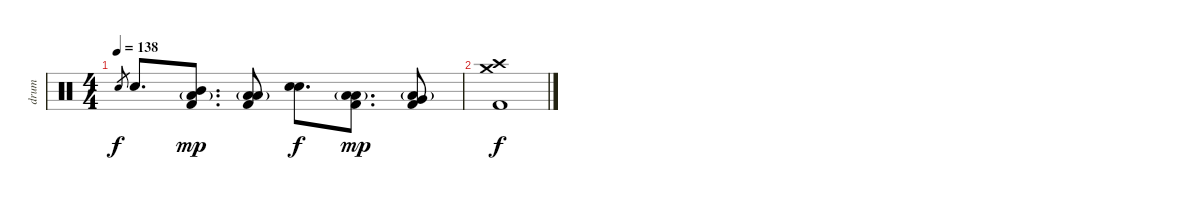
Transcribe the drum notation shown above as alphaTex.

\track ("drum" "drum") {instrument percussion}
\staff {score}
\articulation defaults
\ts (4 4)
\tempo 138
\clef neutral
\ks c "Snare (hit) 2".8{gr dy f} "Snare (hit) 2".8{d}
("Low Floor Tom (hit)"{g} "Mid Tom (hit)" "Kick (hit) 2").8{d dy mp} ("Low Floor Tom (hit)"{g} "Low Tom (hit)" "Kick (hit) 2").8 ("Snare (hit) 2" "Snare (hit) 2").8{d bd 240 dy f} ("Low Floor Tom (hit)"{g} "Low Tom (hit)" "Kick (hit) 2").8{d dy mp} ("Low Floor Tom (hit)"{g} "Very Low Tom (hit)" "Kick (hit) 2").8 |
("Crash high (hit)" "Crash medium (hit)" "Kick (hit) 2").1{dy f}
